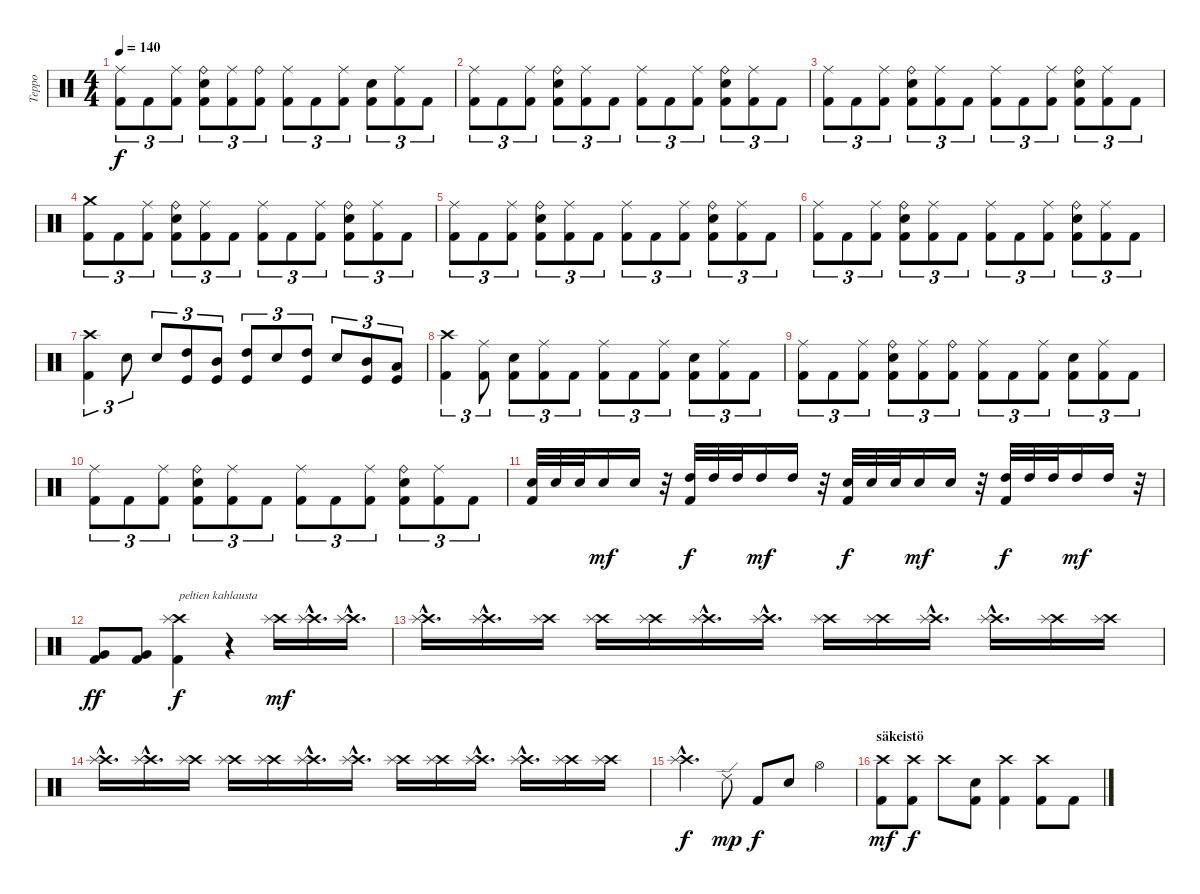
\track ("Teppo" "Teppo") {instrument percussion}
\staff {score}
\articulation defaults
\ts (4 4)
\tempo 140
\clef neutral
\ks c
("Ride (middle)" "Kick (hit) 2").8{tu (3 2) dy f} "Kick (hit) 2".8{tu (3 2)} ("Ride (middle)" "Kick (hit) 2").8{tu (3 2)} ("Ride (bell)" "Electric Snare (hit)" "Kick (hit) 2").8{tu (3 2)} ("Ride (middle)" "Kick (hit) 2").8{tu (3 2)} ("Ride (bell)" "Kick (hit) 2").8{tu (3 2)} ("Ride (middle)" "Kick (hit) 2").8{tu (3 2)} "Kick (hit) 2".8{tu (3 2)} ("Ride (middle)" "Kick (hit) 2").8{tu (3 2)} ("Electric Snare (hit)" "Kick (hit) 2").8{tu (3 2)} ("Ride (middle)" "Kick (hit) 2").8{tu (3 2)} "Kick (hit) 2".8{tu (3 2)} |
("Ride (middle)" "Kick (hit) 2").8{tu (3 2)} "Kick (hit) 2".8{tu (3 2)} ("Ride (middle)" "Kick (hit) 2").8{tu (3 2)} ("Ride (bell)" "Electric Snare (hit)" "Kick (hit) 2").8{tu (3 2)} ("Ride (middle)" "Kick (hit) 2").8{tu (3 2)} "Kick (hit) 2".8{tu (3 2)} ("Ride (middle)" "Kick (hit) 2").8{tu (3 2)} "Kick (hit) 2".8{tu (3 2)} ("Ride (middle)" "Kick (hit) 2").8{tu (3 2)} ("Ride (bell)" "Electric Snare (hit)" "Kick (hit) 2").8{tu (3 2)} ("Ride (middle)" "Kick (hit) 2").8{tu (3 2)} "Kick (hit) 2".8{tu (3 2)} |
("Ride (middle)" "Kick (hit) 2").8{tu (3 2)} "Kick (hit) 2".8{tu (3 2)} ("Ride (middle)" "Kick (hit) 2").8{tu (3 2)} ("Ride (bell)" "Electric Snare (hit)" "Kick (hit) 2").8{tu (3 2)} ("Ride (middle)" "Kick (hit) 2").8{tu (3 2)} "Kick (hit) 2".8{tu (3 2)} ("Ride (middle)" "Kick (hit) 2").8{tu (3 2)} "Kick (hit) 2".8{tu (3 2)} ("Ride (middle)" "Kick (hit) 2").8{tu (3 2)} ("Ride (bell)" "Electric Snare (hit)" "Kick (hit) 2").8{tu (3 2)} ("Ride (middle)" "Kick (hit) 2").8{tu (3 2)} "Kick (hit) 2".8{tu (3 2)} |
("Crash medium (hit)" "Kick (hit) 2").8{tu (3 2)} "Kick (hit) 2".8{tu (3 2)} ("Ride (middle)" "Kick (hit) 2").8{tu (3 2)} ("Ride (bell)" "Electric Snare (hit)" "Kick (hit) 2").8{tu (3 2)} ("Ride (middle)" "Kick (hit) 2").8{tu (3 2)} "Kick (hit) 2".8{tu (3 2)} ("Ride (middle)" "Kick (hit) 2").8{tu (3 2)} "Kick (hit) 2".8{tu (3 2)} ("Ride (middle)" "Kick (hit) 2").8{tu (3 2)} ("Ride (bell)" "Electric Snare (hit)" "Kick (hit) 2").8{tu (3 2)} ("Ride (middle)" "Kick (hit) 2").8{tu (3 2)} "Kick (hit) 2".8{tu (3 2)} |
("Ride (middle)" "Kick (hit) 2").8{tu (3 2)} "Kick (hit) 2".8{tu (3 2)} ("Ride (middle)" "Kick (hit) 2").8{tu (3 2)} ("Ride (bell)" "Electric Snare (hit)" "Kick (hit) 2").8{tu (3 2)} ("Ride (middle)" "Kick (hit) 2").8{tu (3 2)} "Kick (hit) 2".8{tu (3 2)} ("Ride (middle)" "Kick (hit) 2").8{tu (3 2)} "Kick (hit) 2".8{tu (3 2)} ("Ride (middle)" "Kick (hit) 2").8{tu (3 2)} ("Ride (bell)" "Electric Snare (hit)" "Kick (hit) 2").8{tu (3 2)} ("Ride (middle)" "Kick (hit) 2").8{tu (3 2)} "Kick (hit) 2".8{tu (3 2)} |
("Ride (middle)" "Kick (hit) 2").8{tu (3 2)} "Kick (hit) 2".8{tu (3 2)} ("Ride (middle)" "Kick (hit) 2").8{tu (3 2)} ("Ride (bell)" "Electric Snare (hit)" "Kick (hit) 2").8{tu (3 2)} ("Ride (middle)" "Kick (hit) 2").8{tu (3 2)} "Kick (hit) 2".8{tu (3 2)} ("Ride (middle)" "Kick (hit) 2").8{tu (3 2)} "Kick (hit) 2".8{tu (3 2)} ("Ride (middle)" "Kick (hit) 2").8{tu (3 2)} ("Ride (bell)" "Electric Snare (hit)" "Kick (hit) 2").8{tu (3 2)} ("Ride (middle)" "Kick (hit) 2").8{tu (3 2)} "Kick (hit) 2".8{tu (3 2)} |
("Crash high (hit)" "Kick (hit) 2").4{tu (3 2)} "Electric Snare (hit)".8{tu (3 2)} "Electric Snare (hit)".8{tu (3 2)} ("High Tom (hit)" "Kick (hit)").8{tu (3 2)} ("Mid Tom (hit)" "Kick (hit)").8{tu (3 2)} ("High Tom (hit)" "Kick (hit)").8{tu (3 2)} "Electric Snare (hit)".8{tu (3 2)} ("High Tom (hit)" "Kick (hit)").8{tu (3 2)} "Electric Snare (hit)".8{tu (3 2)} ("Mid Tom (hit)" "Kick (hit)").8{tu (3 2)} ("Low Tom (hit)" "Kick (hit)").8{tu (3 2)} |
("Crash high (hit)" "Kick (hit) 2").4{tu (3 2)} ("Ride (middle)" "Kick (hit) 2").8{tu (3 2)} ("Electric Snare (hit)" "Kick (hit) 2").8{tu (3 2)} ("Ride (middle)" "Kick (hit) 2").8{tu (3 2)} "Kick (hit) 2".8{tu (3 2)} ("Ride (middle)" "Kick (hit) 2").8{tu (3 2)} "Kick (hit) 2".8{tu (3 2)} ("Ride (middle)" "Kick (hit) 2").8{tu (3 2)} ("Electric Snare (hit)" "Kick (hit) 2").8{tu (3 2)} ("Ride (middle)" "Kick (hit) 2").8{tu (3 2)} "Kick (hit) 2".8{tu (3 2)} |
("Ride (middle)" "Kick (hit) 2").8{tu (3 2)} "Kick (hit) 2".8{tu (3 2)} ("Ride (middle)" "Kick (hit) 2").8{tu (3 2)} ("Ride (bell)" "Electric Snare (hit)" "Kick (hit) 2").8{tu (3 2)} ("Ride (middle)" "Kick (hit) 2").8{tu (3 2)} ("Ride (bell)" "Kick (hit) 2").8{tu (3 2)} ("Ride (middle)" "Kick (hit) 2").8{tu (3 2)} "Kick (hit) 2".8{tu (3 2)} ("Ride (middle)" "Kick (hit) 2").8{tu (3 2)} ("Electric Snare (hit)" "Kick (hit) 2").8{tu (3 2)} ("Ride (middle)" "Kick (hit) 2").8{tu (3 2)} "Kick (hit) 2".8{tu (3 2)} |
("Ride (middle)" "Kick (hit) 2").8{tu (3 2)} "Kick (hit) 2".8{tu (3 2)} ("Ride (middle)" "Kick (hit) 2").8{tu (3 2)} ("Ride (bell)" "Electric Snare (hit)" "Kick (hit) 2").8{tu (3 2)} ("Ride (middle)" "Kick (hit) 2").8{tu (3 2)} "Kick (hit) 2".8{tu (3 2)} ("Ride (middle)" "Kick (hit) 2").8{tu (3 2)} "Kick (hit) 2".8{tu (3 2)} ("Ride (middle)" "Kick (hit) 2").8{tu (3 2)} ("Ride (bell)" "Electric Snare (hit)" "Kick (hit) 2").8{tu (3 2)} ("Ride (middle)" "Kick (hit) 2").8{tu (3 2)} "Kick (hit) 2".8{tu (3 2)} |
("Electric Snare (hit)" "Kick (hit) 2").32 "Electric Snare (hit)".32 "Electric Snare (hit)".32 "Electric Snare (hit)".16{dy mf} "Electric Snare (hit)".16 r.32 ("High Tom (hit)" "Kick (hit) 2").32{dy f} "High Tom (hit)".32 "High Tom (hit)".32 "High Tom (hit)".16{dy mf} "High Tom (hit)".16 r.32 ("Electric Snare (hit)" "Kick (hit) 2").32{dy f} "Electric Snare (hit)".32 "Electric Snare (hit)".32 "Electric Snare (hit)".16{dy mf} "Electric Snare (hit)".16 r.32 ("High Tom (hit)" "Kick (hit) 2").32{dy f} "High Tom (hit)".32 "High Tom (hit)".32 "High Tom (hit)".16{dy mf} "High Tom (hit)".16 r.32 |
("Very Low Tom (hit)" "Kick (hit) 2").8{dy ff} ("Very Low Tom (hit)" "Kick (hit) 2").8 ("Crash high (hit)" "Splash (hit)" "Kick (hit) 2").4{txt "peltien kahlausta" dy f} r.4 ("Crash high (hit)" "Splash (hit)").16{dy mf} ("Crash high (hit)"{hac} "Splash (hit)"{hac}).16{d} ("Crash high (hit)"{hac} "Splash (hit)"{hac}).16{d} |
("Crash high (hit)"{hac} "Splash (hit)"{hac}).16{d} ("Crash high (hit)"{hac} "Splash (hit)"{hac}).16{d} ("Crash high (hit)" "Splash (hit)").16 ("Crash high (hit)" "Splash (hit)").16 ("Crash high (hit)" "Splash (hit)").16 ("Crash high (hit)"{hac} "Splash (hit)"{hac}).16{d} ("Crash high (hit)"{hac} "Splash (hit)"{hac}).16{d} ("Crash high (hit)" "Splash (hit)").16 ("Crash high (hit)" "Splash (hit)").16 ("Crash high (hit)"{hac} "Splash (hit)"{hac}).16{d} ("Crash high (hit)"{hac} "Splash (hit)"{hac}).16{d} ("Crash high (hit)" "Splash (hit)").16 ("Crash high (hit)" "Splash (hit)").16 |
("Crash high (hit)"{hac} "Splash (hit)"{hac}).16{d} ("Crash high (hit)"{hac} "Splash (hit)"{hac}).16{d} ("Crash high (hit)" "Splash (hit)").16 ("Crash high (hit)" "Splash (hit)").16 ("Crash high (hit)" "Splash (hit)").16 ("Crash high (hit)"{hac} "Splash (hit)"{hac}).16{d} ("Crash high (hit)"{hac} "Splash (hit)"{hac}).16{d} ("Crash high (hit)" "Splash (hit)").16 ("Crash high (hit)" "Splash (hit)").16 ("Crash high (hit)"{hac} "Splash (hit)"{hac}).16{d} ("Crash high (hit)"{hac} "Splash (hit)"{hac}).16{d} ("Crash high (hit)" "Splash (hit)").16 ("Crash high (hit)" "Splash (hit)").16 |
("Crash high (hit)"{hac} "Splash (hit)"{hac}).4{d dy f} "Ride (edge) 2".8{dy mp} "Kick (hit) 2".8{dy f} "Electric Snare (hit)".8 "Hi-Hat (open)".4 |
\section ("" "säkeistö")
("Crash high (hit)" "Kick (hit) 2").8{dy mf} ("Crash high (hit)" "Kick (hit) 2").8{dy f} "Crash high (hit)".8 ("Electric Snare (hit)" "Kick (hit) 2").8 ("Crash high (hit)" "Kick (hit) 2").4 ("Crash high (hit)" "Kick (hit) 2").8 "Kick (hit) 2".8
